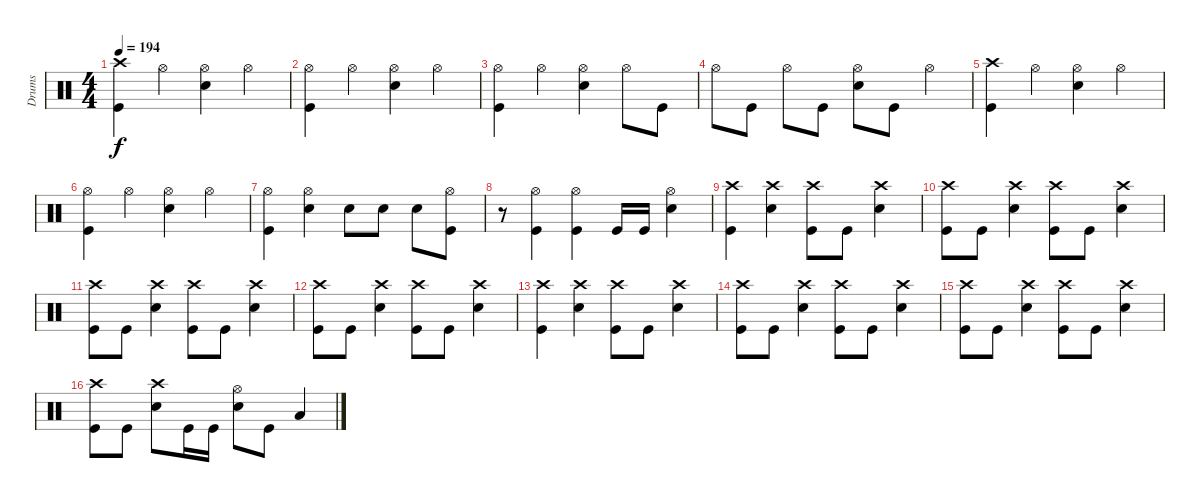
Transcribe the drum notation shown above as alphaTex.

\track ("Drums" "Drums") {instrument percussion}
\staff {score}
\articulation defaults
\ts (4 4)
\tempo 194
\clef neutral
\ks c
("Crash high (hit)" "Kick (hit)").4{dy f} "Hi-Hat (open)".4 ("Hi-Hat (open)" "Electric Snare (hit)").4 "Hi-Hat (open)".4 |
("Hi-Hat (open)" "Kick (hit)").4 "Hi-Hat (open)".4 ("Hi-Hat (open)" "Electric Snare (hit)").4 "Hi-Hat (open)".4 |
("Hi-Hat (open)" "Kick (hit)").4 "Hi-Hat (open)".4 ("Hi-Hat (open)" "Electric Snare (hit)").4 "Hi-Hat (open)".8 "Kick (hit)".8 |
"Hi-Hat (open)".8 "Kick (hit)".8 "Hi-Hat (open)".8 "Kick (hit)".8 ("Hi-Hat (open)" "Electric Snare (hit)").8 "Kick (hit)".8 "Hi-Hat (open)".4 |
("Crash high (hit)" "Kick (hit)").4 "Hi-Hat (open)".4 ("Hi-Hat (open)" "Electric Snare (hit)").4 "Hi-Hat (open)".4 |
("Hi-Hat (open)" "Kick (hit)").4 "Hi-Hat (open)".4 ("Hi-Hat (open)" "Electric Snare (hit)").4 "Hi-Hat (open)".4 |
("Hi-Hat (open)" "Kick (hit)").4 ("Hi-Hat (open)" "Electric Snare (hit)").4 "Electric Snare (hit)".8 "Electric Snare (hit)".8 "Electric Snare (hit)".8 ("Hi-Hat (open)" "Kick (hit)").8 |
r.8 ("Hi-Hat (open)" "Kick (hit)").4 ("Hi-Hat (open)" "Kick (hit)").4 "Kick (hit)".16 "Kick (hit)".16 ("Hi-Hat (open)" "Electric Snare (hit)").4 |
("Crash high (hit)" "Kick (hit)").4 ("Crash high (hit)" "Electric Snare (hit)").4 ("Crash high (hit)" "Kick (hit)").8 "Kick (hit)".8 ("Crash high (hit)" "Electric Snare (hit)").4 |
("Crash high (hit)" "Kick (hit)").8 "Kick (hit)".8 ("Crash high (hit)" "Electric Snare (hit)").4 ("Crash high (hit)" "Kick (hit)").8 "Kick (hit)".8 ("Crash high (hit)" "Electric Snare (hit)").4 |
("Crash high (hit)" "Kick (hit)").8 "Kick (hit)".8 ("Crash high (hit)" "Electric Snare (hit)").4 ("Crash high (hit)" "Kick (hit)").8 "Kick (hit)".8 ("Crash high (hit)" "Electric Snare (hit)").4 |
("Crash high (hit)" "Kick (hit)").8 "Kick (hit)".8 ("Crash high (hit)" "Electric Snare (hit)").4 ("Crash high (hit)" "Kick (hit)").8 "Kick (hit)".8 ("Crash high (hit)" "Electric Snare (hit)").4 |
("Crash high (hit)" "Kick (hit)").4 ("Crash high (hit)" "Electric Snare (hit)").4 ("Crash high (hit)" "Kick (hit)").8 "Kick (hit)".8 ("Crash high (hit)" "Electric Snare (hit)").4 |
("Crash high (hit)" "Kick (hit)").8 "Kick (hit)".8 ("Crash high (hit)" "Electric Snare (hit)").4 ("Crash high (hit)" "Kick (hit)").8 "Kick (hit)".8 ("Crash high (hit)" "Electric Snare (hit)").4 |
("Crash high (hit)" "Kick (hit)").8 "Kick (hit)".8 ("Crash high (hit)" "Electric Snare (hit)").4 ("Crash high (hit)" "Kick (hit)").8 "Kick (hit)".8 ("Crash high (hit)" "Electric Snare (hit)").4 |
("Crash high (hit)" "Kick (hit)").8 "Kick (hit)".8 ("Crash high (hit)" "Electric Snare (hit)").8 "Kick (hit)".16 "Kick (hit)".16 ("Hi-Hat (open)" "Electric Snare (hit)").8 "Kick (hit)".8 "Low Tom (hit)".4
